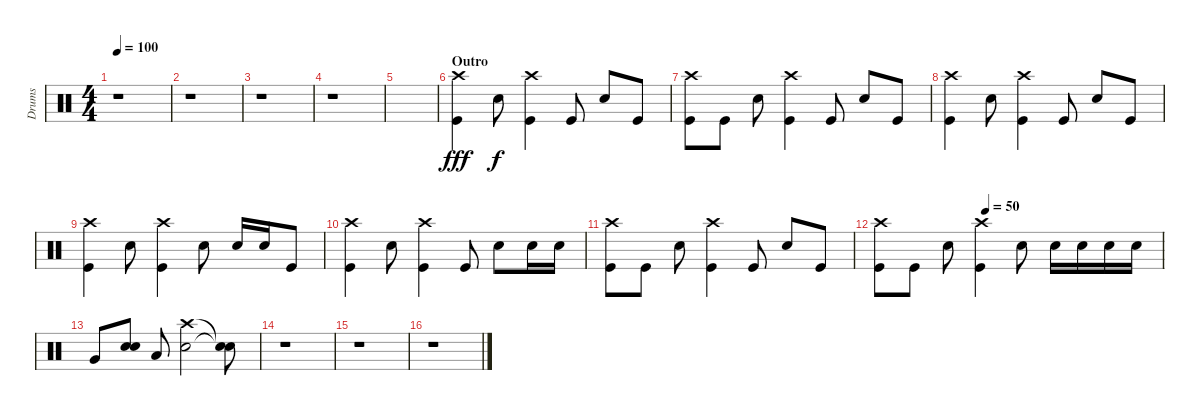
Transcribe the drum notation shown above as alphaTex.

\track ("Drums" "Drums") {instrument percussion}
\staff {score}
\articulation defaults
\ts (4 4)
\tempo 100
\clef neutral
\ks c
r.1{dy f} |
r.1 |
r.1 |
r.1 |
|
\section ("" "Outro")
("Crash high (hit)" "Kick (hit)").4{dy fff} "Snare (hit) 2".8{dy f} ("Crash high (hit)" "Kick (hit)").4 "Kick (hit)".8 "Snare (hit) 2".8 "Kick (hit)".8 |
("Crash high (hit)" "Kick (hit)").8 "Kick (hit)".8 "Snare (hit) 2".8 ("Crash high (hit)" "Kick (hit)").4 "Kick (hit)".8 "Snare (hit) 2".8 "Kick (hit)".8 |
("Crash high (hit)" "Kick (hit)").4 "Snare (hit) 2".8 ("Crash high (hit)" "Kick (hit)").4 "Kick (hit)".8 "Snare (hit) 2".8 "Kick (hit)".8 |
("Crash high (hit)" "Kick (hit)").4 "Snare (hit) 2".8 ("Crash high (hit)" "Kick (hit)").4 "Snare (hit) 2".8 "Snare (hit) 2".16 "Snare (hit) 2".16 "Kick (hit)".8 |
("Crash high (hit)" "Kick (hit)").4 "Snare (hit) 2".8 ("Crash high (hit)" "Kick (hit)").4 "Kick (hit)".8 "Snare (hit) 2".8 "Snare (hit) 2".16 "Snare (hit) 2".16 |
("Crash high (hit)" "Kick (hit)").8 "Kick (hit)".8 "Snare (hit) 2".8 ("Crash high (hit)" "Kick (hit)").4 "Kick (hit)".8 "Snare (hit) 2".8 "Kick (hit)".8 |
\tempo (50 0.375)
("Crash high (hit)" "Kick (hit)").8 "Kick (hit)".8 "Snare (hit) 2".8 ("Crash high (hit)" "Kick (hit)").4 "Snare (hit) 2".8 "Snare (hit) 2".16 "Snare (hit) 2".16 "Snare (hit) 2".16 "Snare (hit) 2".16 |
"Very Low Tom (hit)".8 ("Snare (hit) 2" "Snare (hit) 2").8{bd 120} "Low Floor Tom (hit)".8 ("Crash high (hit)" "Snare (hit) 2").2 ("Snare (hit)"{t} "Snare (hit)"{t}).8 |
r.1 |
r.1 |
r.1
